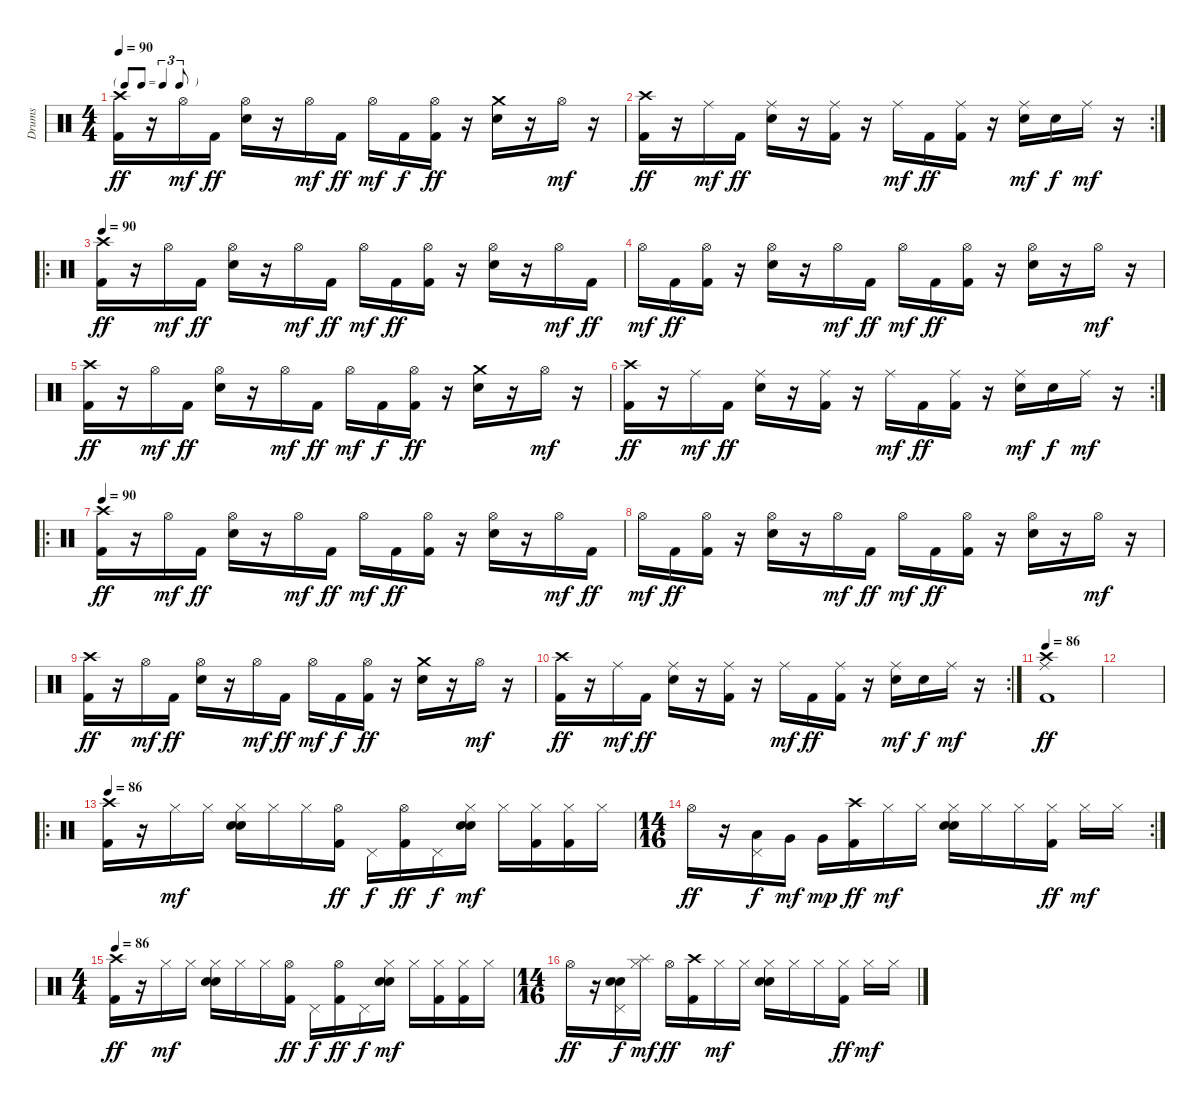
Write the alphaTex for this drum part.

\track ("Drums" "Drums") {instrument percussion}
\staff {score}
\articulation defaults
\ts (4 4)
\tf triplet8th
\tempo 90
\clef neutral
\ks c
("Crash high (hit)" "Kick (hit) 2").16{dy ff} r.16 "Hi-Hat (open)".16{dy mf} "Kick (hit) 2".16{dy ff} ("Hi-Hat (open)" "Electric Snare (hit)").16 r.16 "Hi-Hat (open)".16{dy mf} "Kick (hit) 2".16{dy ff} "Hi-Hat (open)".16{dy mf} "Kick (hit) 2".16{dy f} ("Hi-Hat (open)" "Kick (hit) 2").16{dy ff} r.16 ("Crash medium (hit)" "Electric Snare (hit)").16 r.16 "Hi-Hat (open)".16{dy mf} r.16 |
\rc 2
("Crash high (hit)" "Kick (hit) 2").16{dy ff} r.16 "Ride (middle)".16{dy mf} "Kick (hit) 2".16{dy ff} ("Ride (middle)" "Electric Snare (hit)").16 r.16 ("Ride (middle)" "Kick (hit) 2").16 r.16 "Ride (middle)".16{dy mf} "Kick (hit) 2".16{dy ff} ("Ride (middle)" "Kick (hit) 2").16 r.16 ("Ride (middle)" "Electric Snare (hit)").16{dy mf} "Electric Snare (hit)".16{dy f} "Ride (middle)".16{dy mf} r.16 |
\ro
\tempo 90
("Crash high (hit)" "Kick (hit) 2").16{dy ff} r.16 "Hi-Hat (open)".16{dy mf} "Kick (hit) 2".16{dy ff} ("Hi-Hat (open)" "Electric Snare (hit)").16 r.16 "Hi-Hat (open)".16{dy mf} "Kick (hit) 2".16{dy ff} "Hi-Hat (open)".16{dy mf} "Kick (hit) 2".16{dy ff} ("Hi-Hat (open)" "Kick (hit) 2").16 r.16 ("Hi-Hat (open)" "Electric Snare (hit)").16 r.16 "Hi-Hat (open)".16{dy mf} "Kick (hit) 2".16{dy ff} |
"Hi-Hat (open)".16{dy mf} "Kick (hit) 2".16{dy ff} ("Hi-Hat (open)" "Kick (hit) 2").16 r.16 ("Hi-Hat (open)" "Electric Snare (hit)").16 r.16 "Hi-Hat (open)".16{dy mf} "Kick (hit) 2".16{dy ff} "Hi-Hat (open)".16{dy mf} "Kick (hit) 2".16{dy ff} ("Hi-Hat (open)" "Kick (hit) 2").16 r.16 ("Hi-Hat (open)" "Electric Snare (hit)").16 r.16 "Hi-Hat (open)".16{dy mf} r.16 |
("Crash high (hit)" "Kick (hit) 2").16{dy ff} r.16 "Hi-Hat (open)".16{dy mf} "Kick (hit) 2".16{dy ff} ("Hi-Hat (open)" "Electric Snare (hit)").16 r.16 "Hi-Hat (open)".16{dy mf} "Kick (hit) 2".16{dy ff} "Hi-Hat (open)".16{dy mf} "Kick (hit) 2".16{dy f} ("Hi-Hat (open)" "Kick (hit) 2").16{dy ff} r.16 ("Crash medium (hit)" "Electric Snare (hit)").16 r.16 "Hi-Hat (open)".16{dy mf} r.16 |
\rc 2
("Crash high (hit)" "Kick (hit) 2").16{dy ff} r.16 "Ride (middle)".16{dy mf} "Kick (hit) 2".16{dy ff} ("Ride (middle)" "Electric Snare (hit)").16 r.16 ("Ride (middle)" "Kick (hit) 2").16 r.16 "Ride (middle)".16{dy mf} "Kick (hit) 2".16{dy ff} ("Ride (middle)" "Kick (hit) 2").16 r.16 ("Ride (middle)" "Electric Snare (hit)").16{dy mf} "Electric Snare (hit)".16{dy f} "Ride (middle)".16{dy mf} r.16 |
\ro
\tempo 90
("Crash high (hit)" "Kick (hit) 2").16{dy ff} r.16 "Hi-Hat (open)".16{dy mf} "Kick (hit) 2".16{dy ff} ("Hi-Hat (open)" "Electric Snare (hit)").16 r.16 "Hi-Hat (open)".16{dy mf} "Kick (hit) 2".16{dy ff} "Hi-Hat (open)".16{dy mf} "Kick (hit) 2".16{dy ff} ("Hi-Hat (open)" "Kick (hit) 2").16 r.16 ("Hi-Hat (open)" "Electric Snare (hit)").16 r.16 "Hi-Hat (open)".16{dy mf} "Kick (hit) 2".16{dy ff} |
"Hi-Hat (open)".16{dy mf} "Kick (hit) 2".16{dy ff} ("Hi-Hat (open)" "Kick (hit) 2").16 r.16 ("Hi-Hat (open)" "Electric Snare (hit)").16 r.16 "Hi-Hat (open)".16{dy mf} "Kick (hit) 2".16{dy ff} "Hi-Hat (open)".16{dy mf} "Kick (hit) 2".16{dy ff} ("Hi-Hat (open)" "Kick (hit) 2").16 r.16 ("Hi-Hat (open)" "Electric Snare (hit)").16 r.16 "Hi-Hat (open)".16{dy mf} r.16 |
("Crash high (hit)" "Kick (hit) 2").16{dy ff} r.16 "Hi-Hat (open)".16{dy mf} "Kick (hit) 2".16{dy ff} ("Hi-Hat (open)" "Electric Snare (hit)").16 r.16 "Hi-Hat (open)".16{dy mf} "Kick (hit) 2".16{dy ff} "Hi-Hat (open)".16{dy mf} "Kick (hit) 2".16{dy f} ("Hi-Hat (open)" "Kick (hit) 2").16{dy ff} r.16 ("Crash medium (hit)" "Electric Snare (hit)").16 r.16 "Hi-Hat (open)".16{dy mf} r.16 |
\rc 2
("Crash high (hit)" "Kick (hit) 2").16{dy ff} r.16 "Ride (middle)".16{dy mf} "Kick (hit) 2".16{dy ff} ("Ride (middle)" "Electric Snare (hit)").16 r.16 ("Ride (middle)" "Kick (hit) 2").16 r.16 "Ride (middle)".16{dy mf} "Kick (hit) 2".16{dy ff} ("Ride (middle)" "Kick (hit) 2").16 r.16 ("Ride (middle)" "Electric Snare (hit)").16{dy mf} "Electric Snare (hit)".16{dy f} "Ride (middle)".16{dy mf} r.16 |
\tempo 86
("Ride (middle)" "Crash high (hit)" "Kick (hit) 2").1{dy ff} |
|
\ro
\tempo 86
("Crash high (hit)" "Kick (hit) 2").16 r.16 "Hi-Hat (closed)".16{dy mf} "Hi-Hat (closed)".16 ("Hi-Hat (closed)" "Electric Snare (hit)" "Metronome (bell)").16 "Hi-Hat (closed)".16 "Hi-Hat (closed)".16 ("Hi-Hat (open)" "Kick (hit) 2").16{dy ff} "Pedal Hi-Hat (hit)".16{dy f} ("Hi-Hat (open)" "Kick (hit) 2").16{dy ff} "Pedal Hi-Hat (hit)".16{dy f} ("Hi-Hat (closed)" "Electric Snare (hit)" "Metronome (bell)").16{dy mf} "Hi-Hat (closed)".16 ("Hi-Hat (closed)" "Kick (hit) 2").16 ("Hi-Hat (closed)" "Kick (hit) 2").16 "Hi-Hat (closed)".16 |
\rc 2
\ts (14 16)
"Hi-Hat (open)".16{dy ff} r.16 ("Pedal Hi-Hat (hit)" "Low Tom (hit)").16{dy f} "Very Low Tom (hit)".16{dy mf} "Very Low Tom (hit)".16{dy mp} ("Crash high (hit)" "Kick (hit) 2").16{dy ff} "Hi-Hat (closed)".16{dy mf} "Hi-Hat (closed)".16 ("Hi-Hat (closed)" "Electric Snare (hit)" "Metronome (bell)").16 "Hi-Hat (closed)".16 "Hi-Hat (closed)".16 ("Hi-Hat (closed)" "Kick (hit) 2").16{dy ff} "Hi-Hat (closed)".16{dy mf} "Hi-Hat (closed)".16 |
\ts (4 4)
\tempo 86
("Crash high (hit)" "Kick (hit) 2").16{dy ff} r.16 "Hi-Hat (closed)".16{dy mf} "Hi-Hat (closed)".16 ("Hi-Hat (closed)" "Electric Snare (hit)" "Metronome (bell)").16 "Hi-Hat (closed)".16 "Hi-Hat (closed)".16 ("Hi-Hat (open)" "Kick (hit) 2").16{dy ff} "Pedal Hi-Hat (hit)".16{dy f} ("Hi-Hat (open)" "Kick (hit) 2").16{dy ff} "Pedal Hi-Hat (hit)".16{dy f} ("Hi-Hat (closed)" "Electric Snare (hit)" "Metronome (bell)").16{dy mf} "Hi-Hat (closed)".16 ("Hi-Hat (closed)" "Kick (hit) 2").16 ("Hi-Hat (closed)" "Kick (hit) 2").16 "Hi-Hat (closed)".16 |
\ts (14 16)
"Hi-Hat (open)".16{dy ff} r.16 ("Pedal Hi-Hat (hit)" "Electric Snare (hit)" "Metronome (bell)").16{dy f} ("Splash (hit)" "Hi-Hat (closed)").16{dy mf} "Hi-Hat (open)".16{dy ff} ("Crash high (hit)" "Kick (hit) 2").16 "Hi-Hat (closed)".16{dy mf} "Hi-Hat (closed)".16 ("Hi-Hat (closed)" "Electric Snare (hit)" "Metronome (bell)").16 "Hi-Hat (closed)".16 "Hi-Hat (closed)".16 ("Hi-Hat (closed)" "Kick (hit) 2").16{dy ff} "Hi-Hat (closed)".16{dy mf} "Hi-Hat (closed)".16
